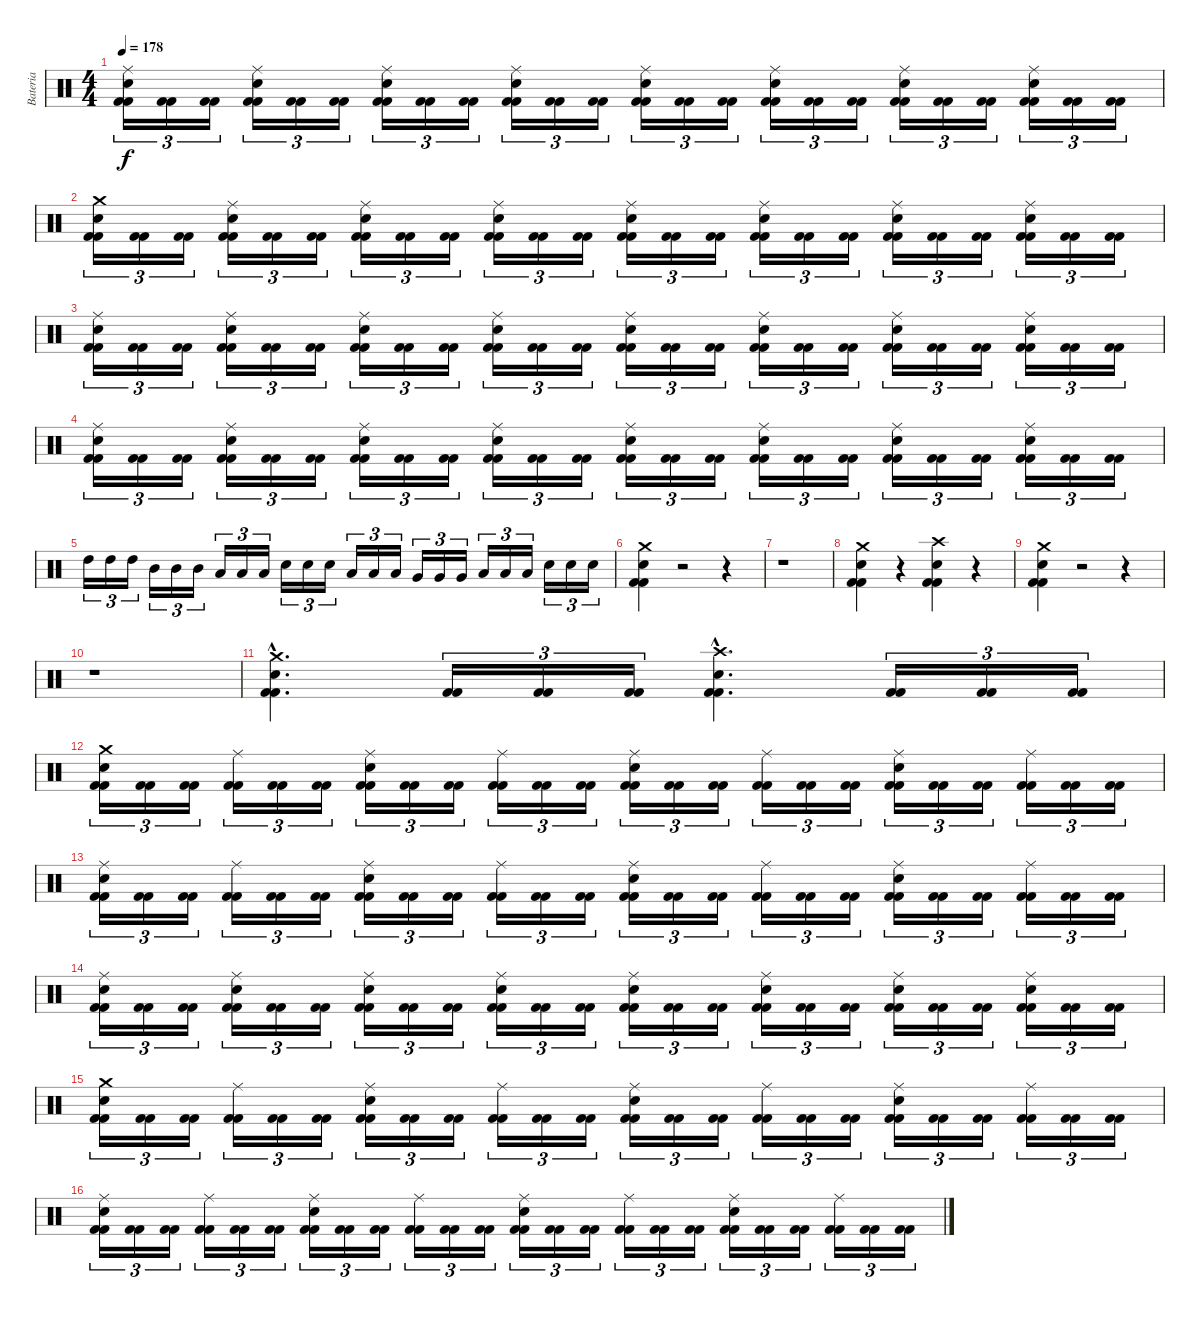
\track ("Bateria" "Bateria") {instrument percussion}
\staff {score}
\articulation defaults
\ts (4 4)
\tempo 178
\clef neutral
\ks c
("Kick (hit) 2" "Kick (hit) 2" "Snare (hit) 2" "Ride (middle)").16{tu (3 2) dy f} ("Kick (hit) 2" "Kick (hit) 2").16{tu (3 2)} ("Kick (hit) 2" "Kick (hit) 2").16{tu (3 2)} ("Kick (hit) 2" "Kick (hit) 2" "Snare (hit) 2" "Ride (middle)").16{tu (3 2)} ("Kick (hit) 2" "Kick (hit) 2").16{tu (3 2)} ("Kick (hit) 2" "Kick (hit) 2").16{tu (3 2)} ("Kick (hit) 2" "Kick (hit) 2" "Snare (hit) 2" "Ride (middle)").16{tu (3 2)} ("Kick (hit) 2" "Kick (hit) 2").16{tu (3 2)} ("Kick (hit) 2" "Kick (hit) 2").16{tu (3 2)} ("Kick (hit) 2" "Kick (hit) 2" "Snare (hit) 2" "Ride (middle)").16{tu (3 2)} ("Kick (hit) 2" "Kick (hit) 2").16{tu (3 2)} ("Kick (hit) 2" "Kick (hit) 2").16{tu (3 2)} ("Kick (hit) 2" "Kick (hit) 2" "Snare (hit) 2" "Ride (middle)").16{tu (3 2)} ("Kick (hit) 2" "Kick (hit) 2").16{tu (3 2)} ("Kick (hit) 2" "Kick (hit) 2").16{tu (3 2)} ("Kick (hit) 2" "Kick (hit) 2" "Snare (hit) 2" "Ride (middle)").16{tu (3 2)} ("Kick (hit) 2" "Kick (hit) 2").16{tu (3 2)} ("Kick (hit) 2" "Kick (hit) 2").16{tu (3 2)} ("Kick (hit) 2" "Kick (hit) 2" "Snare (hit) 2" "Ride (middle)").16{tu (3 2)} ("Kick (hit) 2" "Kick (hit) 2").16{tu (3 2)} ("Kick (hit) 2" "Kick (hit) 2").16{tu (3 2)} ("Kick (hit) 2" "Kick (hit) 2" "Snare (hit) 2" "Ride (middle)").16{tu (3 2)} ("Kick (hit) 2" "Kick (hit) 2").16{tu (3 2)} ("Kick (hit) 2" "Kick (hit) 2").16{tu (3 2)} |
("Kick (hit) 2" "Kick (hit) 2" "Snare (hit) 2" "Crash medium (hit)").16{tu (3 2)} ("Kick (hit) 2" "Kick (hit) 2").16{tu (3 2)} ("Kick (hit) 2" "Kick (hit) 2").16{tu (3 2)} ("Kick (hit) 2" "Kick (hit) 2" "Snare (hit) 2" "Ride (middle)").16{tu (3 2)} ("Kick (hit) 2" "Kick (hit) 2").16{tu (3 2)} ("Kick (hit) 2" "Kick (hit) 2").16{tu (3 2)} ("Kick (hit) 2" "Kick (hit) 2" "Snare (hit) 2" "Ride (middle)").16{tu (3 2)} ("Kick (hit) 2" "Kick (hit) 2").16{tu (3 2)} ("Kick (hit) 2" "Kick (hit) 2").16{tu (3 2)} ("Kick (hit) 2" "Kick (hit) 2" "Snare (hit) 2" "Ride (middle)").16{tu (3 2)} ("Kick (hit) 2" "Kick (hit) 2").16{tu (3 2)} ("Kick (hit) 2" "Kick (hit) 2").16{tu (3 2)} ("Kick (hit) 2" "Kick (hit) 2" "Snare (hit) 2" "Ride (middle)").16{tu (3 2)} ("Kick (hit) 2" "Kick (hit) 2").16{tu (3 2)} ("Kick (hit) 2" "Kick (hit) 2").16{tu (3 2)} ("Kick (hit) 2" "Kick (hit) 2" "Snare (hit) 2" "Ride (middle)").16{tu (3 2)} ("Kick (hit) 2" "Kick (hit) 2").16{tu (3 2)} ("Kick (hit) 2" "Kick (hit) 2").16{tu (3 2)} ("Kick (hit) 2" "Kick (hit) 2" "Snare (hit) 2" "Ride (middle)").16{tu (3 2)} ("Kick (hit) 2" "Kick (hit) 2").16{tu (3 2)} ("Kick (hit) 2" "Kick (hit) 2").16{tu (3 2)} ("Kick (hit) 2" "Kick (hit) 2" "Snare (hit) 2" "Ride (middle)").16{tu (3 2)} ("Kick (hit) 2" "Kick (hit) 2").16{tu (3 2)} ("Kick (hit) 2" "Kick (hit) 2").16{tu (3 2)} |
("Kick (hit) 2" "Kick (hit) 2" "Snare (hit) 2" "Ride (middle)").16{tu (3 2)} ("Kick (hit) 2" "Kick (hit) 2").16{tu (3 2)} ("Kick (hit) 2" "Kick (hit) 2").16{tu (3 2)} ("Kick (hit) 2" "Kick (hit) 2" "Snare (hit) 2" "Ride (middle)").16{tu (3 2)} ("Kick (hit) 2" "Kick (hit) 2").16{tu (3 2)} ("Kick (hit) 2" "Kick (hit) 2").16{tu (3 2)} ("Kick (hit) 2" "Kick (hit) 2" "Snare (hit) 2" "Ride (middle)").16{tu (3 2)} ("Kick (hit) 2" "Kick (hit) 2").16{tu (3 2)} ("Kick (hit) 2" "Kick (hit) 2").16{tu (3 2)} ("Kick (hit) 2" "Kick (hit) 2" "Snare (hit) 2" "Ride (middle)").16{tu (3 2)} ("Kick (hit) 2" "Kick (hit) 2").16{tu (3 2)} ("Kick (hit) 2" "Kick (hit) 2").16{tu (3 2)} ("Kick (hit) 2" "Kick (hit) 2" "Snare (hit) 2" "Ride (middle)").16{tu (3 2)} ("Kick (hit) 2" "Kick (hit) 2").16{tu (3 2)} ("Kick (hit) 2" "Kick (hit) 2").16{tu (3 2)} ("Kick (hit) 2" "Kick (hit) 2" "Snare (hit) 2" "Ride (middle)").16{tu (3 2)} ("Kick (hit) 2" "Kick (hit) 2").16{tu (3 2)} ("Kick (hit) 2" "Kick (hit) 2").16{tu (3 2)} ("Kick (hit) 2" "Kick (hit) 2" "Snare (hit) 2" "Ride (middle)").16{tu (3 2)} ("Kick (hit) 2" "Kick (hit) 2").16{tu (3 2)} ("Kick (hit) 2" "Kick (hit) 2").16{tu (3 2)} ("Kick (hit) 2" "Kick (hit) 2" "Snare (hit) 2" "Ride (middle)").16{tu (3 2)} ("Kick (hit) 2" "Kick (hit) 2").16{tu (3 2)} ("Kick (hit) 2" "Kick (hit) 2").16{tu (3 2)} |
("Kick (hit) 2" "Kick (hit) 2" "Snare (hit) 2" "Ride (middle)").16{tu (3 2)} ("Kick (hit) 2" "Kick (hit) 2").16{tu (3 2)} ("Kick (hit) 2" "Kick (hit) 2").16{tu (3 2)} ("Kick (hit) 2" "Kick (hit) 2" "Snare (hit) 2" "Ride (middle)").16{tu (3 2)} ("Kick (hit) 2" "Kick (hit) 2").16{tu (3 2)} ("Kick (hit) 2" "Kick (hit) 2").16{tu (3 2)} ("Kick (hit) 2" "Kick (hit) 2" "Snare (hit) 2" "Ride (middle)").16{tu (3 2)} ("Kick (hit) 2" "Kick (hit) 2").16{tu (3 2)} ("Kick (hit) 2" "Kick (hit) 2").16{tu (3 2)} ("Kick (hit) 2" "Kick (hit) 2" "Snare (hit) 2" "Ride (middle)").16{tu (3 2)} ("Kick (hit) 2" "Kick (hit) 2").16{tu (3 2)} ("Kick (hit) 2" "Kick (hit) 2").16{tu (3 2)} ("Kick (hit) 2" "Kick (hit) 2" "Snare (hit) 2" "Ride (middle)").16{tu (3 2)} ("Kick (hit) 2" "Kick (hit) 2").16{tu (3 2)} ("Kick (hit) 2" "Kick (hit) 2").16{tu (3 2)} ("Kick (hit) 2" "Kick (hit) 2" "Snare (hit) 2" "Ride (middle)").16{tu (3 2)} ("Kick (hit) 2" "Kick (hit) 2").16{tu (3 2)} ("Kick (hit) 2" "Kick (hit) 2").16{tu (3 2)} ("Kick (hit) 2" "Kick (hit) 2" "Snare (hit) 2" "Ride (middle)").16{tu (3 2)} ("Kick (hit) 2" "Kick (hit) 2").16{tu (3 2)} ("Kick (hit) 2" "Kick (hit) 2").16{tu (3 2)} ("Kick (hit) 2" "Kick (hit) 2" "Snare (hit) 2" "Ride (middle)").16{tu (3 2)} ("Kick (hit) 2" "Kick (hit) 2").16{tu (3 2)} ("Kick (hit) 2" "Kick (hit) 2").16{tu (3 2)} |
"High Tom (hit)".16{tu (3 2)} "High Tom (hit)".16{tu (3 2)} "High Tom (hit)".16{tu (3 2)} "Mid Tom (hit)".16{tu (3 2)} "Mid Tom (hit)".16{tu (3 2)} "Mid Tom (hit)".16{tu (3 2)} "Low Tom (hit)".16{tu (3 2)} "Low Tom (hit)".16{tu (3 2)} "Low Tom (hit)".16{tu (3 2)} "Snare (hit) 2".16{tu (3 2)} "Snare (hit) 2".16{tu (3 2)} "Snare (hit) 2".16{tu (3 2)} "Low Tom (hit)".16{tu (3 2)} "Low Tom (hit)".16{tu (3 2)} "Low Tom (hit)".16{tu (3 2)} "Very Low Tom (hit)".16{tu (3 2)} "Very Low Tom (hit)".16{tu (3 2)} "Very Low Tom (hit)".16{tu (3 2)} "Low Floor Tom (hit)".16{tu (3 2)} "Low Floor Tom (hit)".16{tu (3 2)} "Low Floor Tom (hit)".16{tu (3 2)} "Snare (hit) 2".16{tu (3 2)} "Snare (hit) 2".16{tu (3 2)} "Snare (hit) 2".16{tu (3 2)} |
("Kick (hit) 2" "Kick (hit) 2" "Snare (hit) 2" "Crash medium (hit)").4 r.2 r.4 |
r.1 |
("Kick (hit) 2" "Kick (hit) 2" "Snare (hit) 2" "Crash medium (hit)").4 r.4 ("Kick (hit) 2" "Kick (hit) 2" "Snare (hit) 2" "Crash high (hit)").4 r.4 |
("Kick (hit) 2" "Kick (hit) 2" "Snare (hit) 2" "Crash medium (hit)").4 r.2 r.4 |
r.1 |
("Kick (hit) 2"{hac} "Kick (hit) 2"{hac} "Snare (hit) 2"{hac} "Crash medium (hit)"{hac}).4{d} ("Kick (hit) 2" "Kick (hit) 2").16{tu (3 2)} ("Kick (hit) 2" "Kick (hit) 2").16{tu (3 2)} ("Kick (hit) 2" "Kick (hit) 2").16{tu (3 2)} ("Kick (hit) 2"{hac} "Kick (hit) 2"{hac} "Snare (hit) 2"{hac} "Crash high (hit)"{hac}).4{d} ("Kick (hit) 2" "Kick (hit) 2").16{tu (3 2)} ("Kick (hit) 2" "Kick (hit) 2").16{tu (3 2)} ("Kick (hit) 2" "Kick (hit) 2").16{tu (3 2)} |
("Kick (hit) 2" "Kick (hit) 2" "Snare (hit) 2" "Crash medium (hit)").16{tu (3 2)} ("Kick (hit) 2" "Kick (hit) 2").16{tu (3 2)} ("Kick (hit) 2" "Kick (hit) 2").16{tu (3 2)} ("Kick (hit) 2" "Kick (hit) 2" "Ride (middle)").16{tu (3 2)} ("Kick (hit) 2" "Kick (hit) 2").16{tu (3 2)} ("Kick (hit) 2" "Kick (hit) 2").16{tu (3 2)} ("Kick (hit) 2" "Kick (hit) 2" "Snare (hit) 2" "Ride (middle)").16{tu (3 2)} ("Kick (hit) 2" "Kick (hit) 2").16{tu (3 2)} ("Kick (hit) 2" "Kick (hit) 2").16{tu (3 2)} ("Kick (hit) 2" "Kick (hit) 2" "Ride (middle)").16{tu (3 2)} ("Kick (hit) 2" "Kick (hit) 2").16{tu (3 2)} ("Kick (hit) 2" "Kick (hit) 2").16{tu (3 2)} ("Kick (hit) 2" "Kick (hit) 2" "Snare (hit) 2" "Ride (middle)").16{tu (3 2)} ("Kick (hit) 2" "Kick (hit) 2").16{tu (3 2)} ("Kick (hit) 2" "Kick (hit) 2").16{tu (3 2)} ("Kick (hit) 2" "Kick (hit) 2" "Ride (middle)").16{tu (3 2)} ("Kick (hit) 2" "Kick (hit) 2").16{tu (3 2)} ("Kick (hit) 2" "Kick (hit) 2").16{tu (3 2)} ("Kick (hit) 2" "Kick (hit) 2" "Snare (hit) 2" "Ride (middle)").16{tu (3 2)} ("Kick (hit) 2" "Kick (hit) 2").16{tu (3 2)} ("Kick (hit) 2" "Kick (hit) 2").16{tu (3 2)} ("Kick (hit) 2" "Kick (hit) 2" "Ride (middle)").16{tu (3 2)} ("Kick (hit) 2" "Kick (hit) 2").16{tu (3 2)} ("Kick (hit) 2" "Kick (hit) 2").16{tu (3 2)} |
("Kick (hit) 2" "Kick (hit) 2" "Snare (hit) 2" "Ride (middle)").16{tu (3 2)} ("Kick (hit) 2" "Kick (hit) 2").16{tu (3 2)} ("Kick (hit) 2" "Kick (hit) 2").16{tu (3 2)} ("Kick (hit) 2" "Kick (hit) 2" "Ride (middle)").16{tu (3 2)} ("Kick (hit) 2" "Kick (hit) 2").16{tu (3 2)} ("Kick (hit) 2" "Kick (hit) 2").16{tu (3 2)} ("Kick (hit) 2" "Kick (hit) 2" "Snare (hit) 2" "Ride (middle)").16{tu (3 2)} ("Kick (hit) 2" "Kick (hit) 2").16{tu (3 2)} ("Kick (hit) 2" "Kick (hit) 2").16{tu (3 2)} ("Kick (hit) 2" "Kick (hit) 2" "Ride (middle)").16{tu (3 2)} ("Kick (hit) 2" "Kick (hit) 2").16{tu (3 2)} ("Kick (hit) 2" "Kick (hit) 2").16{tu (3 2)} ("Kick (hit) 2" "Kick (hit) 2" "Snare (hit) 2" "Ride (middle)").16{tu (3 2)} ("Kick (hit) 2" "Kick (hit) 2").16{tu (3 2)} ("Kick (hit) 2" "Kick (hit) 2").16{tu (3 2)} ("Kick (hit) 2" "Kick (hit) 2" "Ride (middle)").16{tu (3 2)} ("Kick (hit) 2" "Kick (hit) 2").16{tu (3 2)} ("Kick (hit) 2" "Kick (hit) 2").16{tu (3 2)} ("Kick (hit) 2" "Kick (hit) 2" "Snare (hit) 2" "Ride (middle)").16{tu (3 2)} ("Kick (hit) 2" "Kick (hit) 2").16{tu (3 2)} ("Kick (hit) 2" "Kick (hit) 2").16{tu (3 2)} ("Kick (hit) 2" "Kick (hit) 2" "Ride (middle)").16{tu (3 2)} ("Kick (hit) 2" "Kick (hit) 2").16{tu (3 2)} ("Kick (hit) 2" "Kick (hit) 2").16{tu (3 2)} |
("Kick (hit) 2" "Kick (hit) 2" "Snare (hit) 2" "Ride (middle)").16{tu (3 2)} ("Kick (hit) 2" "Kick (hit) 2").16{tu (3 2)} ("Kick (hit) 2" "Kick (hit) 2").16{tu (3 2)} ("Kick (hit) 2" "Kick (hit) 2" "Snare (hit) 2" "Ride (middle)").16{tu (3 2)} ("Kick (hit) 2" "Kick (hit) 2").16{tu (3 2)} ("Kick (hit) 2" "Kick (hit) 2").16{tu (3 2)} ("Kick (hit) 2" "Kick (hit) 2" "Snare (hit) 2" "Ride (middle)").16{tu (3 2)} ("Kick (hit) 2" "Kick (hit) 2").16{tu (3 2)} ("Kick (hit) 2" "Kick (hit) 2").16{tu (3 2)} ("Kick (hit) 2" "Kick (hit) 2" "Snare (hit) 2" "Ride (middle)").16{tu (3 2)} ("Kick (hit) 2" "Kick (hit) 2").16{tu (3 2)} ("Kick (hit) 2" "Kick (hit) 2").16{tu (3 2)} ("Kick (hit) 2" "Kick (hit) 2" "Snare (hit) 2" "Ride (middle)").16{tu (3 2)} ("Kick (hit) 2" "Kick (hit) 2").16{tu (3 2)} ("Kick (hit) 2" "Kick (hit) 2").16{tu (3 2)} ("Kick (hit) 2" "Kick (hit) 2" "Snare (hit) 2" "Ride (middle)").16{tu (3 2)} ("Kick (hit) 2" "Kick (hit) 2").16{tu (3 2)} ("Kick (hit) 2" "Kick (hit) 2").16{tu (3 2)} ("Kick (hit) 2" "Kick (hit) 2" "Snare (hit) 2" "Ride (middle)").16{tu (3 2)} ("Kick (hit) 2" "Kick (hit) 2").16{tu (3 2)} ("Kick (hit) 2" "Kick (hit) 2").16{tu (3 2)} ("Kick (hit) 2" "Kick (hit) 2" "Snare (hit) 2" "Ride (middle)").16{tu (3 2)} ("Kick (hit) 2" "Kick (hit) 2").16{tu (3 2)} ("Kick (hit) 2" "Kick (hit) 2").16{tu (3 2)} |
("Kick (hit) 2" "Kick (hit) 2" "Snare (hit) 2" "Crash medium (hit)").16{tu (3 2)} ("Kick (hit) 2" "Kick (hit) 2").16{tu (3 2)} ("Kick (hit) 2" "Kick (hit) 2").16{tu (3 2)} ("Kick (hit) 2" "Kick (hit) 2" "Ride (middle)").16{tu (3 2)} ("Kick (hit) 2" "Kick (hit) 2").16{tu (3 2)} ("Kick (hit) 2" "Kick (hit) 2").16{tu (3 2)} ("Kick (hit) 2" "Kick (hit) 2" "Snare (hit) 2" "Ride (middle)").16{tu (3 2)} ("Kick (hit) 2" "Kick (hit) 2").16{tu (3 2)} ("Kick (hit) 2" "Kick (hit) 2").16{tu (3 2)} ("Kick (hit) 2" "Kick (hit) 2" "Ride (middle)").16{tu (3 2)} ("Kick (hit) 2" "Kick (hit) 2").16{tu (3 2)} ("Kick (hit) 2" "Kick (hit) 2").16{tu (3 2)} ("Kick (hit) 2" "Kick (hit) 2" "Snare (hit) 2" "Ride (middle)").16{tu (3 2)} ("Kick (hit) 2" "Kick (hit) 2").16{tu (3 2)} ("Kick (hit) 2" "Kick (hit) 2").16{tu (3 2)} ("Kick (hit) 2" "Kick (hit) 2" "Ride (middle)").16{tu (3 2)} ("Kick (hit) 2" "Kick (hit) 2").16{tu (3 2)} ("Kick (hit) 2" "Kick (hit) 2").16{tu (3 2)} ("Kick (hit) 2" "Kick (hit) 2" "Snare (hit) 2" "Ride (middle)").16{tu (3 2)} ("Kick (hit) 2" "Kick (hit) 2").16{tu (3 2)} ("Kick (hit) 2" "Kick (hit) 2").16{tu (3 2)} ("Kick (hit) 2" "Kick (hit) 2" "Ride (middle)").16{tu (3 2)} ("Kick (hit) 2" "Kick (hit) 2").16{tu (3 2)} ("Kick (hit) 2" "Kick (hit) 2").16{tu (3 2)} |
("Kick (hit) 2" "Kick (hit) 2" "Snare (hit) 2" "Ride (middle)").16{tu (3 2)} ("Kick (hit) 2" "Kick (hit) 2").16{tu (3 2)} ("Kick (hit) 2" "Kick (hit) 2").16{tu (3 2)} ("Kick (hit) 2" "Kick (hit) 2" "Ride (middle)").16{tu (3 2)} ("Kick (hit) 2" "Kick (hit) 2").16{tu (3 2)} ("Kick (hit) 2" "Kick (hit) 2").16{tu (3 2)} ("Kick (hit) 2" "Kick (hit) 2" "Snare (hit) 2" "Ride (middle)").16{tu (3 2)} ("Kick (hit) 2" "Kick (hit) 2").16{tu (3 2)} ("Kick (hit) 2" "Kick (hit) 2").16{tu (3 2)} ("Kick (hit) 2" "Kick (hit) 2" "Ride (middle)").16{tu (3 2)} ("Kick (hit) 2" "Kick (hit) 2").16{tu (3 2)} ("Kick (hit) 2" "Kick (hit) 2").16{tu (3 2)} ("Kick (hit) 2" "Kick (hit) 2" "Snare (hit) 2" "Ride (middle)").16{tu (3 2)} ("Kick (hit) 2" "Kick (hit) 2").16{tu (3 2)} ("Kick (hit) 2" "Kick (hit) 2").16{tu (3 2)} ("Kick (hit) 2" "Kick (hit) 2" "Ride (middle)").16{tu (3 2)} ("Kick (hit) 2" "Kick (hit) 2").16{tu (3 2)} ("Kick (hit) 2" "Kick (hit) 2").16{tu (3 2)} ("Kick (hit) 2" "Kick (hit) 2" "Snare (hit) 2" "Ride (middle)").16{tu (3 2)} ("Kick (hit) 2" "Kick (hit) 2").16{tu (3 2)} ("Kick (hit) 2" "Kick (hit) 2").16{tu (3 2)} ("Kick (hit) 2" "Kick (hit) 2" "Ride (middle)").16{tu (3 2)} ("Kick (hit) 2" "Kick (hit) 2").16{tu (3 2)} ("Kick (hit) 2" "Kick (hit) 2").16{tu (3 2)}
